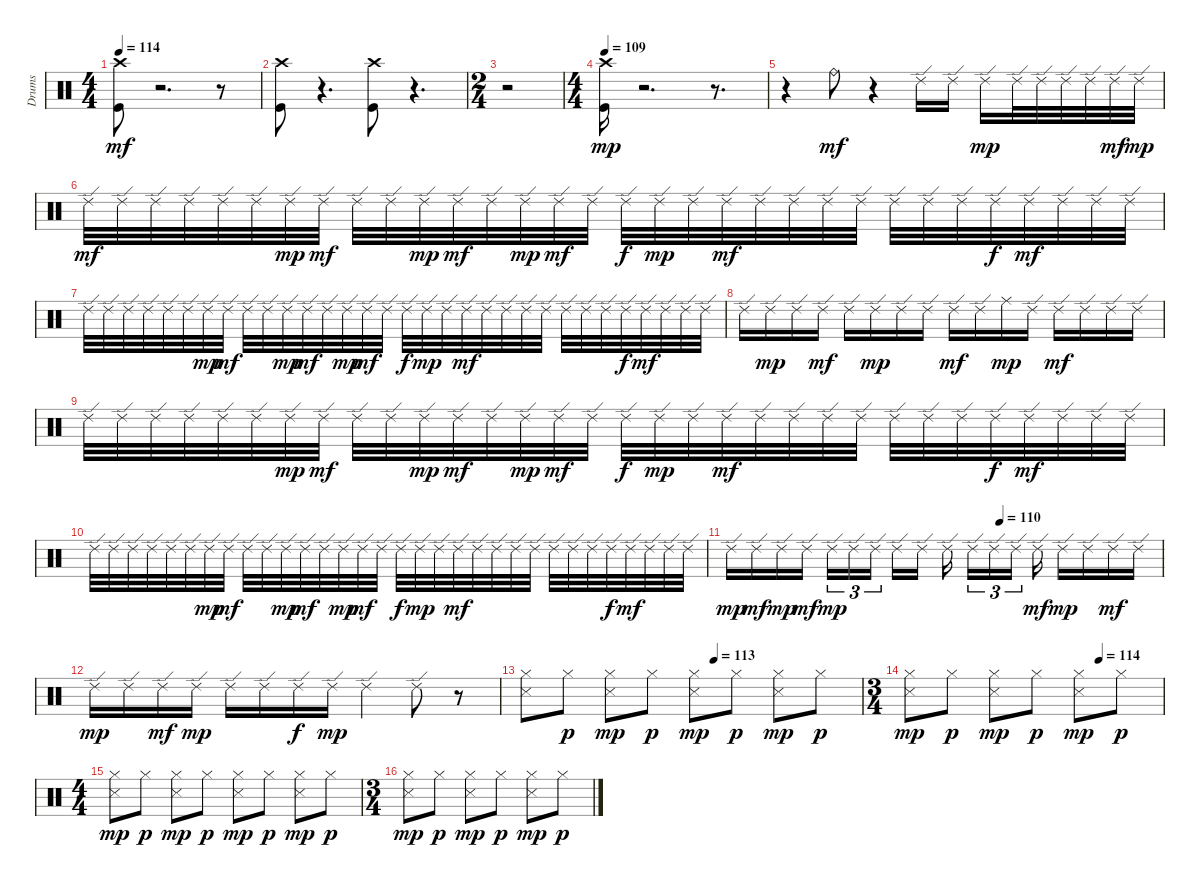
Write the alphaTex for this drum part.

\track ("Drums" "Drums") {instrument percussion}
\staff {score}
\articulation defaults
\ts (4 4)
\tempo 114
\clef neutral
\ks c
("Kick (hit)" "Crash high (hit)").8{dy mf} r.2{d} r.8 |
("Kick (hit)" "Crash high (hit)").8 r.4{d} ("Kick (hit)" "Crash high (hit)").8 r.4{d} |
\ts (2 4)
r.2 |
\ts (4 4)
\tempo 109
("Kick (hit)" "Crash high (hit)").16{dy mp} r.2{d} r.8{d} |
r.4 "Ride (bell)".8{dy mf} r.4 "Ride (edge) 2".16 "Ride (edge) 2".16 "Ride (edge) 2".16{dy mp} "Ride (edge) 2".32 "Ride (edge) 2".32 "Ride (edge) 2".32 "Ride (edge) 2".32 "Ride (edge) 2".32{dy mf} "Ride (edge) 2".32{dy mp} |
"Ride (edge) 2".32{dy mf} "Ride (edge) 2".32 "Ride (edge) 2".32 "Ride (edge) 2".32 "Ride (edge) 2".32 "Ride (edge) 2".32 "Ride (edge) 2".32{dy mp} "Ride (edge) 2".32{dy mf} "Ride (edge) 2".32 "Ride (edge) 2".32 "Ride (edge) 2".32{dy mp} "Ride (edge) 2".32{dy mf} "Ride (edge) 2".32 "Ride (edge) 2".32{dy mp} "Ride (edge) 2".32{dy mf} "Ride (edge) 2".32 "Ride (edge) 2".32{dy f} "Ride (edge) 2".32{dy mp} "Ride (edge) 2".32 "Ride (edge) 2".32{dy mf} "Ride (edge) 2".32 "Ride (edge) 2".32 "Ride (edge) 2".32 "Ride (edge) 2".32 "Ride (edge) 2".32 "Ride (edge) 2".32 "Ride (edge) 2".32 "Ride (edge) 2".32{dy f} "Ride (edge) 2".32{dy mf} "Ride (edge) 2".32 "Ride (edge) 2".32 "Ride (edge) 2".32 |
"Ride (edge) 2".32 "Ride (edge) 2".32 "Ride (edge) 2".32 "Ride (edge) 2".32 "Ride (edge) 2".32 "Ride (edge) 2".32 "Ride (edge) 2".32{dy mp} "Ride (edge) 2".32{dy mf} "Ride (edge) 2".32 "Ride (edge) 2".32 "Ride (edge) 2".32{dy mp} "Ride (edge) 2".32{dy mf} "Ride (edge) 2".32 "Ride (edge) 2".32{dy mp} "Ride (edge) 2".32{dy mf} "Ride (edge) 2".32 "Ride (edge) 2".32{dy f} "Ride (edge) 2".32{dy mp} "Ride (edge) 2".32 "Ride (edge) 2".32{dy mf} "Ride (edge) 2".32 "Ride (edge) 2".32 "Ride (edge) 2".32 "Ride (edge) 2".32 "Ride (edge) 2".32 "Ride (edge) 2".32 "Ride (edge) 2".32 "Ride (edge) 2".32{dy f} "Ride (edge) 2".32{dy mf} "Ride (edge) 2".32 "Ride (edge) 2".32 "Ride (edge) 2".32 |
"Ride (edge) 2".16 "Ride (edge) 2".16{dy mp} "Ride (edge) 2".16 "Ride (edge) 2".16{dy mf} "Ride (edge) 2".16 "Ride (edge) 2".16{dy mp} "Ride (edge) 2".16 "Ride (edge) 2".16 "Ride (edge) 2".16{dy mf} "Ride (edge) 2".16 "Ride (middle)".16{dy mp} "Ride (edge) 2".16 "Ride (edge) 2".16{dy mf} "Ride (edge) 2".16 "Ride (edge) 2".16 "Ride (edge) 2".16 |
"Ride (edge) 2".32 "Ride (edge) 2".32 "Ride (edge) 2".32 "Ride (edge) 2".32 "Ride (edge) 2".32 "Ride (edge) 2".32 "Ride (edge) 2".32{dy mp} "Ride (edge) 2".32{dy mf} "Ride (edge) 2".32 "Ride (edge) 2".32 "Ride (edge) 2".32{dy mp} "Ride (edge) 2".32{dy mf} "Ride (edge) 2".32 "Ride (edge) 2".32{dy mp} "Ride (edge) 2".32{dy mf} "Ride (edge) 2".32 "Ride (edge) 2".32{dy f} "Ride (edge) 2".32{dy mp} "Ride (edge) 2".32 "Ride (edge) 2".32{dy mf} "Ride (edge) 2".32 "Ride (edge) 2".32 "Ride (edge) 2".32 "Ride (edge) 2".32 "Ride (edge) 2".32 "Ride (edge) 2".32 "Ride (edge) 2".32 "Ride (edge) 2".32{dy f} "Ride (edge) 2".32{dy mf} "Ride (edge) 2".32 "Ride (edge) 2".32 "Ride (edge) 2".32 |
"Ride (edge) 2".32 "Ride (edge) 2".32 "Ride (edge) 2".32 "Ride (edge) 2".32 "Ride (edge) 2".32 "Ride (edge) 2".32 "Ride (edge) 2".32{dy mp} "Ride (edge) 2".32{dy mf} "Ride (edge) 2".32 "Ride (edge) 2".32 "Ride (edge) 2".32{dy mp} "Ride (edge) 2".32{dy mf} "Ride (edge) 2".32 "Ride (edge) 2".32{dy mp} "Ride (edge) 2".32{dy mf} "Ride (edge) 2".32 "Ride (edge) 2".32{dy f} "Ride (edge) 2".32{dy mp} "Ride (edge) 2".32 "Ride (edge) 2".32{dy mf} "Ride (edge) 2".32 "Ride (edge) 2".32 "Ride (edge) 2".32 "Ride (edge) 2".32 "Ride (edge) 2".32 "Ride (edge) 2".32 "Ride (edge) 2".32 "Ride (edge) 2".32{dy f} "Ride (edge) 2".32{dy mf} "Ride (edge) 2".32 "Ride (edge) 2".32 "Ride (edge) 2".32 |
\tempo (110 0.625)
"Ride (edge) 2".16{dy mp} "Ride (edge) 2".16{dy mf} "Ride (edge) 2".16{dy mp} "Ride (edge) 2".16{dy mf} "Ride (edge) 2".16{tu (3 2) dy mp} "Ride (edge) 2".16{tu (3 2)} "Ride (edge) 2".16{tu (3 2)} "Ride (edge) 2".16 "Ride (edge) 2".16 "Ride (edge) 2".16 "Ride (edge) 2".16{tu (3 2)} "Ride (edge) 2".16{tu (3 2)} "Ride (edge) 2".16{tu (3 2)} "Ride (edge) 2".16{dy mf} "Ride (edge) 2".16{dy mp} "Ride (edge) 2".16 "Ride (edge) 2".16{dy mf} "Ride (edge) 2".16 |
"Ride (edge) 2".16{dy mp} "Ride (edge) 2".16 "Ride (edge) 2".16{dy mf} "Ride (edge) 2".16{dy mp} "Ride (edge) 2".16 "Ride (edge) 2".16 "Ride (edge) 2".16{dy f} "Ride (edge) 2".16{dy mp} "Ride (edge) 2".4 "Ride (edge) 2".8 r.8 |
\tempo (113 0.5625)
("Snare (side stick) 3" "Hi-Hat (closed)").8 "Hi-Hat (closed)".8{dy p} ("Snare (side stick) 3" "Hi-Hat (closed)").8{dy mp} "Hi-Hat (closed)".8{dy p} ("Snare (side stick) 3" "Hi-Hat (closed)").8{dy mp} "Hi-Hat (closed)".8{dy p} ("Snare (side stick) 3" "Hi-Hat (closed)").8{dy mp} "Hi-Hat (closed)".8{dy p} |
\ts (3 4)
\tempo (114 0.75)
("Snare (side stick) 3" "Hi-Hat (closed)").8{dy mp} "Hi-Hat (closed)".8{dy p} ("Snare (side stick) 3" "Hi-Hat (closed)").8{dy mp} "Hi-Hat (closed)".8{dy p} ("Snare (side stick) 3" "Hi-Hat (closed)").8{dy mp} "Hi-Hat (closed)".8{dy p} |
\ts (4 4)
("Snare (side stick) 3" "Hi-Hat (closed)").8{dy mp} "Hi-Hat (closed)".8{dy p} ("Snare (side stick) 3" "Hi-Hat (closed)").8{dy mp} "Hi-Hat (closed)".8{dy p} ("Snare (side stick) 3" "Hi-Hat (closed)").8{dy mp} "Hi-Hat (closed)".8{dy p} ("Snare (side stick) 3" "Hi-Hat (closed)").8{dy mp} "Hi-Hat (closed)".8{dy p} |
\ts (3 4)
("Snare (side stick) 3" "Hi-Hat (closed)").8{dy mp} "Hi-Hat (closed)".8{dy p} ("Snare (side stick) 3" "Hi-Hat (closed)").8{dy mp} "Hi-Hat (closed)".8{dy p} ("Snare (side stick) 3" "Hi-Hat (closed)").8{dy mp} "Hi-Hat (closed)".8{dy p}
